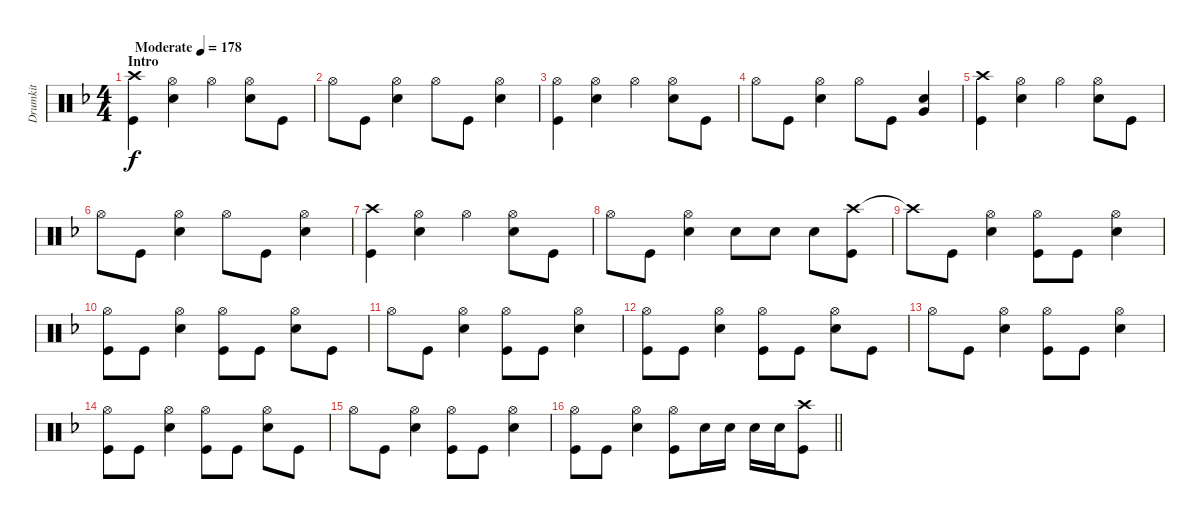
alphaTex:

\track ("Drumkit" "Drumkit") {instrument percussion}
\staff {score}
\articulation defaults
\ts (4 4)
\section ("" "Intro")
\tempo (178 "Moderate")
\clef neutral
\ks f
("Crash high (hit)" "Kick (hit)").4{dy f} ("Hi-Hat (open)" "Snare (hit) 2").4 "Hi-Hat (open)".4 ("Hi-Hat (open)" "Snare (hit) 2").8 "Kick (hit)".8 |
"Hi-Hat (open)".8 "Kick (hit)".8 ("Hi-Hat (open)" "Snare (hit) 2").4 "Hi-Hat (open)".8 "Kick (hit)".8 ("Hi-Hat (open)" "Snare (hit) 2").4 |
("Hi-Hat (open)" "Kick (hit)").4 ("Hi-Hat (open)" "Snare (hit) 2").4 "Hi-Hat (open)".4 ("Hi-Hat (open)" "Snare (hit) 2").8 "Kick (hit)".8 |
"Hi-Hat (open)".8 "Kick (hit)".8 ("Hi-Hat (open)" "Snare (hit) 2").4 "Hi-Hat (open)".8 "Kick (hit)".8 ("Very Low Tom (hit)" "Snare (hit) 2").4 |
("Crash high (hit)" "Kick (hit)").4 ("Hi-Hat (open)" "Snare (hit) 2").4 "Hi-Hat (open)".4 ("Hi-Hat (open)" "Snare (hit) 2").8 "Kick (hit)".8 |
"Hi-Hat (open)".8 "Kick (hit)".8 ("Hi-Hat (open)" "Snare (hit) 2").4 "Hi-Hat (open)".8 "Kick (hit)".8 ("Hi-Hat (open)" "Snare (hit) 2").4 |
("Crash high (hit)" "Kick (hit)").4 ("Hi-Hat (open)" "Snare (hit) 2").4 "Hi-Hat (open)".4 ("Hi-Hat (open)" "Snare (hit) 2").8 "Kick (hit)".8 |
"Hi-Hat (open)".8 "Kick (hit)".8 ("Hi-Hat (open)" "Snare (hit) 2").4 "Snare (hit) 2".8 "Snare (hit) 2".8 "Snare (hit) 2".8 ("Crash high (hit)" "Kick (hit)").8 |
"Crash high (hit)"{t}.8 "Kick (hit)".8 ("Hi-Hat (open)" "Snare (hit) 2").4 ("Hi-Hat (open)" "Kick (hit)").8 "Kick (hit)".8 ("Hi-Hat (open)" "Snare (hit) 2").4 |
("Hi-Hat (open)" "Kick (hit)").8 "Kick (hit)".8 ("Hi-Hat (open)" "Snare (hit) 2").4 ("Hi-Hat (open)" "Kick (hit)").8 "Kick (hit)".8 ("Hi-Hat (open)" "Snare (hit) 2").8 "Kick (hit)".8 |
"Hi-Hat (open)".8 "Kick (hit)".8 ("Hi-Hat (open)" "Snare (hit) 2").4 ("Hi-Hat (open)" "Kick (hit)").8 "Kick (hit)".8 ("Hi-Hat (open)" "Snare (hit) 2").4 |
("Hi-Hat (open)" "Kick (hit)").8 "Kick (hit)".8 ("Hi-Hat (open)" "Snare (hit) 2").4 ("Hi-Hat (open)" "Kick (hit)").8 "Kick (hit)".8 ("Hi-Hat (open)" "Snare (hit) 2").8 "Kick (hit)".8 |
"Hi-Hat (open)".8 "Kick (hit)".8 ("Hi-Hat (open)" "Snare (hit) 2").4 ("Hi-Hat (open)" "Kick (hit)").8 "Kick (hit)".8 ("Hi-Hat (open)" "Snare (hit) 2").4 |
("Hi-Hat (open)" "Kick (hit)").8 "Kick (hit)".8 ("Hi-Hat (open)" "Snare (hit) 2").4 ("Hi-Hat (open)" "Kick (hit)").8 "Kick (hit)".8 ("Hi-Hat (open)" "Snare (hit) 2").8 "Kick (hit)".8 |
"Hi-Hat (open)".8 "Kick (hit)".8 ("Hi-Hat (open)" "Snare (hit) 2").4 ("Hi-Hat (open)" "Kick (hit)").8 "Kick (hit)".8 ("Hi-Hat (open)" "Snare (hit) 2").4 |
\barLineRight lightlight
("Hi-Hat (open)" "Kick (hit)").8 "Kick (hit)".8 ("Hi-Hat (open)" "Snare (hit) 2").4 ("Hi-Hat (open)" "Kick (hit)").8 "Snare (hit) 2".16 "Snare (hit) 2".16 "Snare (hit) 2".16 "Snare (hit) 2".16 ("Crash high (hit)" "Kick (hit)").8
